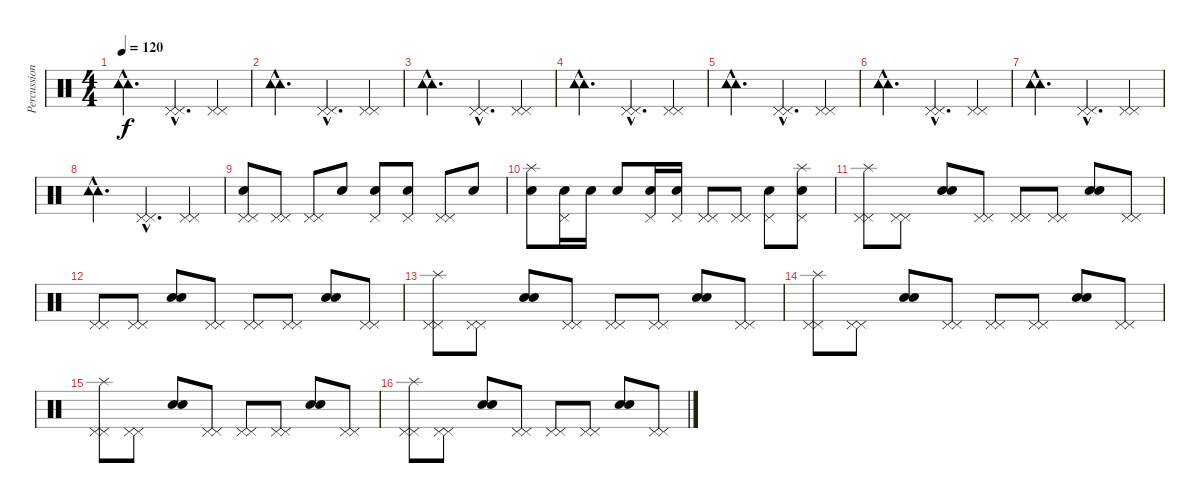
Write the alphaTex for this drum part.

\track ("Percussioni" "Percussion") {instrument percussion}
\staff {score}
\articulation defaults
\ts (4 4)
\tempo 120
\clef neutral
\ks c
("Tambourine (hit)"{hac} "Tambourine (hit)"{hac}).4{d dy f} ("Pedal Hi-Hat (hit)"{hac} "Pedal Hi-Hat (hit)"{hac}).4{d} ("Pedal Hi-Hat (hit)" "Pedal Hi-Hat (hit)").4 |
("Tambourine (hit)"{hac} "Tambourine (hit)"{hac}).4{d} ("Pedal Hi-Hat (hit)"{hac} "Pedal Hi-Hat (hit)"{hac}).4{d} ("Pedal Hi-Hat (hit)" "Pedal Hi-Hat (hit)").4 |
("Tambourine (hit)"{hac} "Tambourine (hit)"{hac}).4{d} ("Pedal Hi-Hat (hit)"{hac} "Pedal Hi-Hat (hit)"{hac}).4{d} ("Pedal Hi-Hat (hit)" "Pedal Hi-Hat (hit)").4 |
("Tambourine (hit)"{hac} "Tambourine (hit)"{hac}).4{d} ("Pedal Hi-Hat (hit)"{hac} "Pedal Hi-Hat (hit)"{hac}).4{d} ("Pedal Hi-Hat (hit)" "Pedal Hi-Hat (hit)").4 |
("Tambourine (hit)"{hac} "Tambourine (hit)"{hac}).4{d} ("Pedal Hi-Hat (hit)"{hac} "Pedal Hi-Hat (hit)"{hac}).4{d} ("Pedal Hi-Hat (hit)" "Pedal Hi-Hat (hit)").4 |
("Tambourine (hit)"{hac} "Tambourine (hit)"{hac}).4{d} ("Pedal Hi-Hat (hit)"{hac} "Pedal Hi-Hat (hit)"{hac}).4{d} ("Pedal Hi-Hat (hit)" "Pedal Hi-Hat (hit)").4 |
("Tambourine (hit)"{hac} "Tambourine (hit)"{hac}).4{d} ("Pedal Hi-Hat (hit)"{hac} "Pedal Hi-Hat (hit)"{hac}).4{d} ("Pedal Hi-Hat (hit)" "Pedal Hi-Hat (hit)").4 |
("Tambourine (hit)"{hac} "Tambourine (hit)"{hac}).4{d} ("Pedal Hi-Hat (hit)"{hac} "Pedal Hi-Hat (hit)"{hac}).4{d} ("Pedal Hi-Hat (hit)" "Pedal Hi-Hat (hit)").4 |
("Pedal Hi-Hat (hit)" "Pedal Hi-Hat (hit)" "Snare (hit) 2").8 ("Pedal Hi-Hat (hit)" "Pedal Hi-Hat (hit)").8 ("Pedal Hi-Hat (hit)" "Pedal Hi-Hat (hit)").8 "Snare (hit) 2".8 ("Pedal Hi-Hat (hit)" "Snare (hit) 2").8 ("Pedal Hi-Hat (hit)" "Snare (hit) 2").8 ("Pedal Hi-Hat (hit)" "Pedal Hi-Hat (hit)").8 "Snare (hit) 2".8 |
("Splash (hit)" "Snare (hit) 2").8 ("Pedal Hi-Hat (hit)" "Snare (hit) 2").16 "Snare (hit) 2".16 "Snare (hit) 2".8 ("Pedal Hi-Hat (hit)" "Snare (hit) 2").16 ("Snare (hit) 2" "Pedal Hi-Hat (hit)").16 ("Pedal Hi-Hat (hit)" "Pedal Hi-Hat (hit)").8 ("Pedal Hi-Hat (hit)" "Pedal Hi-Hat (hit)").8 ("Snare (hit) 2" "Pedal Hi-Hat (hit)").8 ("Splash (hit)" "Pedal Hi-Hat (hit)" "Snare (hit) 2").8 |
("Splash (hit)" "Pedal Hi-Hat (hit)" "Pedal Hi-Hat (hit)").8 ("Pedal Hi-Hat (hit)" "Pedal Hi-Hat (hit)").8 ("Snare (hit) 2" "Snare (hit) 2").8 ("Pedal Hi-Hat (hit)" "Pedal Hi-Hat (hit)").8 ("Pedal Hi-Hat (hit)" "Pedal Hi-Hat (hit)").8 ("Pedal Hi-Hat (hit)" "Pedal Hi-Hat (hit)").8 ("Snare (hit) 2" "Snare (hit) 2").8 ("Pedal Hi-Hat (hit)" "Pedal Hi-Hat (hit)").8 |
("Pedal Hi-Hat (hit)" "Pedal Hi-Hat (hit)").8 ("Pedal Hi-Hat (hit)" "Pedal Hi-Hat (hit)").8 ("Snare (hit) 2" "Snare (hit) 2").8 ("Pedal Hi-Hat (hit)" "Pedal Hi-Hat (hit)").8 ("Pedal Hi-Hat (hit)" "Pedal Hi-Hat (hit)").8 ("Pedal Hi-Hat (hit)" "Pedal Hi-Hat (hit)").8 ("Snare (hit) 2" "Snare (hit) 2").8 ("Pedal Hi-Hat (hit)" "Pedal Hi-Hat (hit)").8 |
("Splash (hit)" "Pedal Hi-Hat (hit)" "Pedal Hi-Hat (hit)").8 ("Pedal Hi-Hat (hit)" "Pedal Hi-Hat (hit)").8 ("Snare (hit) 2" "Snare (hit) 2").8 ("Pedal Hi-Hat (hit)" "Pedal Hi-Hat (hit)").8 ("Pedal Hi-Hat (hit)" "Pedal Hi-Hat (hit)").8 ("Pedal Hi-Hat (hit)" "Pedal Hi-Hat (hit)").8 ("Snare (hit) 2" "Snare (hit) 2").8 ("Pedal Hi-Hat (hit)" "Pedal Hi-Hat (hit)").8 |
("Splash (hit)" "Pedal Hi-Hat (hit)" "Pedal Hi-Hat (hit)").8 ("Pedal Hi-Hat (hit)" "Pedal Hi-Hat (hit)").8 ("Snare (hit) 2" "Snare (hit) 2").8 ("Pedal Hi-Hat (hit)" "Pedal Hi-Hat (hit)").8 ("Pedal Hi-Hat (hit)" "Pedal Hi-Hat (hit)").8 ("Pedal Hi-Hat (hit)" "Pedal Hi-Hat (hit)").8 ("Snare (hit) 2" "Snare (hit) 2").8 ("Pedal Hi-Hat (hit)" "Pedal Hi-Hat (hit)").8 |
("Splash (hit)" "Pedal Hi-Hat (hit)" "Pedal Hi-Hat (hit)").8 ("Pedal Hi-Hat (hit)" "Pedal Hi-Hat (hit)").8 ("Snare (hit) 2" "Snare (hit) 2").8 ("Pedal Hi-Hat (hit)" "Pedal Hi-Hat (hit)").8 ("Pedal Hi-Hat (hit)" "Pedal Hi-Hat (hit)").8 ("Pedal Hi-Hat (hit)" "Pedal Hi-Hat (hit)").8 ("Snare (hit) 2" "Snare (hit) 2").8 ("Pedal Hi-Hat (hit)" "Pedal Hi-Hat (hit)").8 |
("Splash (hit)" "Pedal Hi-Hat (hit)" "Pedal Hi-Hat (hit)").8 ("Pedal Hi-Hat (hit)" "Pedal Hi-Hat (hit)").8 ("Snare (hit) 2" "Snare (hit) 2").8 ("Pedal Hi-Hat (hit)" "Pedal Hi-Hat (hit)").8 ("Pedal Hi-Hat (hit)" "Pedal Hi-Hat (hit)").8 ("Pedal Hi-Hat (hit)" "Pedal Hi-Hat (hit)").8 ("Snare (hit) 2" "Snare (hit) 2").8 ("Pedal Hi-Hat (hit)" "Pedal Hi-Hat (hit)").8
